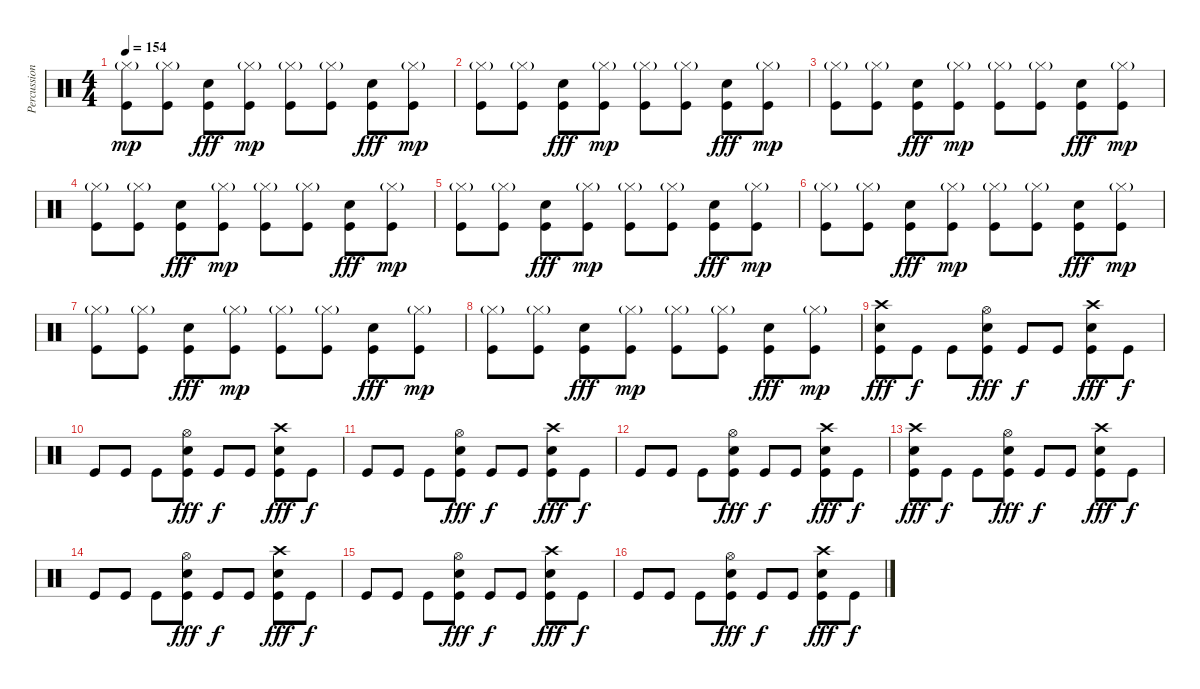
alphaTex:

\track ("Percussion" "Percussion") {instrument percussion}
\staff {score}
\articulation defaults
\ts (4 4)
\tempo 154
\clef neutral
\ks c
("Kick (hit)" "Hi-Hat (closed)"{g}).8{dy mp} ("Kick (hit)" "Hi-Hat (closed)"{g}).8 ("Kick (hit)" "Electric Snare (hit)").8{dy fff} ("Kick (hit)" "Hi-Hat (closed)"{g}).8{dy mp} ("Kick (hit)" "Hi-Hat (closed)"{g}).8 ("Kick (hit)" "Hi-Hat (closed)"{g}).8 ("Kick (hit)" "Electric Snare (hit)").8{dy fff} ("Kick (hit)" "Hi-Hat (closed)"{g}).8{dy mp} |
("Kick (hit)" "Hi-Hat (closed)"{g}).8 ("Kick (hit)" "Hi-Hat (closed)"{g}).8 ("Kick (hit)" "Electric Snare (hit)").8{dy fff} ("Kick (hit)" "Hi-Hat (closed)"{g}).8{dy mp} ("Kick (hit)" "Hi-Hat (closed)"{g}).8 ("Kick (hit)" "Hi-Hat (closed)"{g}).8 ("Kick (hit)" "Electric Snare (hit)").8{dy fff} ("Kick (hit)" "Hi-Hat (closed)"{g}).8{dy mp} |
("Kick (hit)" "Hi-Hat (closed)"{g}).8 ("Kick (hit)" "Hi-Hat (closed)"{g}).8 ("Kick (hit)" "Electric Snare (hit)").8{dy fff} ("Kick (hit)" "Hi-Hat (closed)"{g}).8{dy mp} ("Kick (hit)" "Hi-Hat (closed)"{g}).8 ("Kick (hit)" "Hi-Hat (closed)"{g}).8 ("Kick (hit)" "Electric Snare (hit)").8{dy fff} ("Kick (hit)" "Hi-Hat (closed)"{g}).8{dy mp} |
("Kick (hit)" "Hi-Hat (closed)"{g}).8 ("Kick (hit)" "Hi-Hat (closed)"{g}).8 ("Kick (hit)" "Electric Snare (hit)").8{dy fff} ("Kick (hit)" "Hi-Hat (closed)"{g}).8{dy mp} ("Kick (hit)" "Hi-Hat (closed)"{g}).8 ("Kick (hit)" "Hi-Hat (closed)"{g}).8 ("Kick (hit)" "Electric Snare (hit)").8{dy fff} ("Kick (hit)" "Hi-Hat (closed)"{g}).8{dy mp} |
("Kick (hit)" "Hi-Hat (closed)"{g}).8 ("Kick (hit)" "Hi-Hat (closed)"{g}).8 ("Kick (hit)" "Electric Snare (hit)").8{dy fff} ("Kick (hit)" "Hi-Hat (closed)"{g}).8{dy mp} ("Kick (hit)" "Hi-Hat (closed)"{g}).8 ("Kick (hit)" "Hi-Hat (closed)"{g}).8 ("Kick (hit)" "Electric Snare (hit)").8{dy fff} ("Kick (hit)" "Hi-Hat (closed)"{g}).8{dy mp} |
("Kick (hit)" "Hi-Hat (closed)"{g}).8 ("Kick (hit)" "Hi-Hat (closed)"{g}).8 ("Kick (hit)" "Electric Snare (hit)").8{dy fff} ("Kick (hit)" "Hi-Hat (closed)"{g}).8{dy mp} ("Kick (hit)" "Hi-Hat (closed)"{g}).8 ("Kick (hit)" "Hi-Hat (closed)"{g}).8 ("Kick (hit)" "Electric Snare (hit)").8{dy fff} ("Kick (hit)" "Hi-Hat (closed)"{g}).8{dy mp} |
("Kick (hit)" "Hi-Hat (closed)"{g}).8 ("Kick (hit)" "Hi-Hat (closed)"{g}).8 ("Kick (hit)" "Electric Snare (hit)").8{dy fff} ("Kick (hit)" "Hi-Hat (closed)"{g}).8{dy mp} ("Kick (hit)" "Hi-Hat (closed)"{g}).8 ("Kick (hit)" "Hi-Hat (closed)"{g}).8 ("Kick (hit)" "Electric Snare (hit)").8{dy fff} ("Kick (hit)" "Hi-Hat (closed)"{g}).8{dy mp} |
("Kick (hit)" "Hi-Hat (closed)"{g}).8 ("Kick (hit)" "Hi-Hat (closed)"{g}).8 ("Kick (hit)" "Electric Snare (hit)").8{dy fff} ("Kick (hit)" "Hi-Hat (closed)"{g}).8{dy mp} ("Kick (hit)" "Hi-Hat (closed)"{g}).8 ("Kick (hit)" "Hi-Hat (closed)"{g}).8 ("Kick (hit)" "Electric Snare (hit)").8{dy fff} ("Kick (hit)" "Hi-Hat (closed)"{g}).8{dy mp} |
("Kick (hit)" "Crash high (hit)" "Electric Snare (hit)").8{dy fff} "Kick (hit)".8{dy f} "Kick (hit)".8 ("Kick (hit)" "Electric Snare (hit)" "Hi-Hat (open)").8{dy fff} "Kick (hit)".8{dy f} "Kick (hit)".8 ("Electric Snare (hit)" "Kick (hit)" "Crash high (hit)").8{dy fff} "Kick (hit)".8{dy f} |
"Kick (hit)".8 "Kick (hit)".8 "Kick (hit)".8 ("Kick (hit)" "Electric Snare (hit)" "Hi-Hat (open)").8{dy fff} "Kick (hit)".8{dy f} "Kick (hit)".8 ("Kick (hit)" "Electric Snare (hit)" "Crash high (hit)").8{dy fff} "Kick (hit)".8{dy f} |
"Kick (hit)".8 "Kick (hit)".8 "Kick (hit)".8 ("Kick (hit)" "Electric Snare (hit)" "Hi-Hat (open)").8{dy fff} "Kick (hit)".8{dy f} "Kick (hit)".8 ("Kick (hit)" "Electric Snare (hit)" "Crash high (hit)").8{dy fff} "Kick (hit)".8{dy f} |
"Kick (hit)".8 "Kick (hit)".8 "Kick (hit)".8 ("Kick (hit)" "Electric Snare (hit)" "Hi-Hat (open)").8{dy fff} "Kick (hit)".8{dy f} "Kick (hit)".8 ("Kick (hit)" "Electric Snare (hit)" "Crash high (hit)").8{dy fff} "Kick (hit)".8{dy f} |
("Kick (hit)" "Crash high (hit)" "Electric Snare (hit)").8{dy fff} "Kick (hit)".8{dy f} "Kick (hit)".8 ("Kick (hit)" "Electric Snare (hit)" "Hi-Hat (open)").8{dy fff} "Kick (hit)".8{dy f} "Kick (hit)".8 ("Electric Snare (hit)" "Kick (hit)" "Crash high (hit)").8{dy fff} "Kick (hit)".8{dy f} |
"Kick (hit)".8 "Kick (hit)".8 "Kick (hit)".8 ("Kick (hit)" "Electric Snare (hit)" "Hi-Hat (open)").8{dy fff} "Kick (hit)".8{dy f} "Kick (hit)".8 ("Kick (hit)" "Electric Snare (hit)" "Crash high (hit)").8{dy fff} "Kick (hit)".8{dy f} |
"Kick (hit)".8 "Kick (hit)".8 "Kick (hit)".8 ("Kick (hit)" "Electric Snare (hit)" "Hi-Hat (open)").8{dy fff} "Kick (hit)".8{dy f} "Kick (hit)".8 ("Kick (hit)" "Electric Snare (hit)" "Crash high (hit)").8{dy fff} "Kick (hit)".8{dy f} |
"Kick (hit)".8 "Kick (hit)".8 "Kick (hit)".8 ("Kick (hit)" "Electric Snare (hit)" "Hi-Hat (open)").8{dy fff} "Kick (hit)".8{dy f} "Kick (hit)".8 ("Kick (hit)" "Electric Snare (hit)" "Crash high (hit)").8{dy fff} "Kick (hit)".8{dy f}
